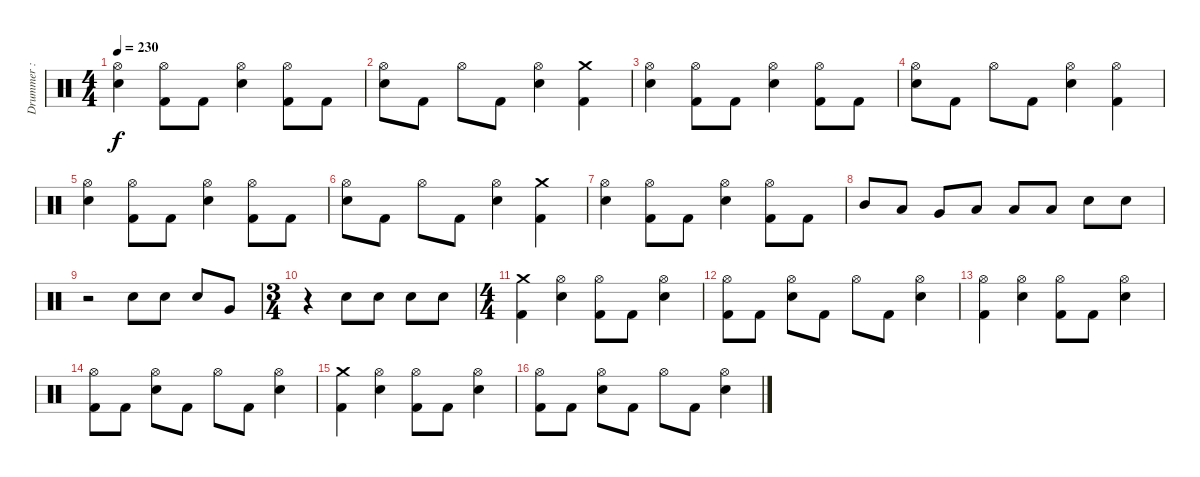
\track ("Drummer : Tainaka Ritsu - Swan" "Drummer : ") {instrument percussion}
\staff {score}
\articulation defaults
\ts (4 4)
\tempo 230
\clef neutral
\ks c
("Hi-Hat (open)" "Electric Snare (hit)").4{dy f} ("Hi-Hat (open)" "Kick (hit) 2").8 "Kick (hit) 2".8 ("Hi-Hat (open)" "Electric Snare (hit)").4 ("Hi-Hat (open)" "Kick (hit) 2").8 "Kick (hit) 2".8 |
("Hi-Hat (open)" "Electric Snare (hit)").8 "Kick (hit) 2".8 "Hi-Hat (open)".8 "Kick (hit) 2".8 ("Hi-Hat (open)" "Electric Snare (hit)").4 ("Crash medium (hit)" "Kick (hit) 2").4 |
("Hi-Hat (open)" "Electric Snare (hit)").4 ("Hi-Hat (open)" "Kick (hit) 2").8 "Kick (hit) 2".8 ("Hi-Hat (open)" "Electric Snare (hit)").4 ("Hi-Hat (open)" "Kick (hit) 2").8 "Kick (hit) 2".8 |
("Hi-Hat (open)" "Electric Snare (hit)").8 "Kick (hit) 2".8 "Hi-Hat (open)".8 "Kick (hit) 2".8 ("Hi-Hat (open)" "Electric Snare (hit)").4 ("Hi-Hat (open)" "Kick (hit) 2").4 |
("Hi-Hat (open)" "Electric Snare (hit)").4 ("Hi-Hat (open)" "Kick (hit) 2").8 "Kick (hit) 2".8 ("Hi-Hat (open)" "Electric Snare (hit)").4 ("Hi-Hat (open)" "Kick (hit) 2").8 "Kick (hit) 2".8 |
("Hi-Hat (open)" "Electric Snare (hit)").8 "Kick (hit) 2".8 "Hi-Hat (open)".8 "Kick (hit) 2".8 ("Hi-Hat (open)" "Electric Snare (hit)").4 ("Crash medium (hit)" "Kick (hit) 2").4 |
("Hi-Hat (open)" "Electric Snare (hit)").4 ("Hi-Hat (open)" "Kick (hit) 2").8 "Kick (hit) 2".8 ("Hi-Hat (open)" "Electric Snare (hit)").4 ("Hi-Hat (open)" "Kick (hit) 2").8 "Kick (hit) 2".8 |
"Mid Tom (hit)".8 "Low Tom (hit)".8 "Very Low Tom (hit)".8 "Low Floor Tom (hit)".8 "Low Floor Tom (hit)".8 "Low Floor Tom (hit)".8 "Electric Snare (hit)".8 "Electric Snare (hit)".8 |
r.2 "Electric Snare (hit)".8 "Electric Snare (hit)".8 "Electric Snare (hit)".8 "Very Low Tom (hit)".8 |
\ts (3 4)
r.4 "Electric Snare (hit)".8 "Electric Snare (hit)".8 "Electric Snare (hit)".8 "Electric Snare (hit)".8 |
\ts (4 4)
("Crash medium (hit)" "Kick (hit) 2").4 ("Hi-Hat (open)" "Electric Snare (hit)").4 ("Hi-Hat (open)" "Kick (hit) 2").8 "Kick (hit) 2".8 ("Hi-Hat (open)" "Electric Snare (hit)").4 |
("Hi-Hat (open)" "Kick (hit) 2").8 "Kick (hit) 2".8 ("Hi-Hat (open)" "Electric Snare (hit)").8 "Kick (hit) 2".8 "Hi-Hat (open)".8 "Kick (hit) 2".8 ("Hi-Hat (open)" "Electric Snare (hit)").4 |
("Hi-Hat (open)" "Kick (hit) 2").4 ("Hi-Hat (open)" "Electric Snare (hit)").4 ("Hi-Hat (open)" "Kick (hit) 2").8 "Kick (hit) 2".8 ("Hi-Hat (open)" "Electric Snare (hit)").4 |
("Hi-Hat (open)" "Kick (hit) 2").8 "Kick (hit) 2".8 ("Hi-Hat (open)" "Electric Snare (hit)").8 "Kick (hit) 2".8 "Hi-Hat (open)".8 "Kick (hit) 2".8 ("Hi-Hat (open)" "Electric Snare (hit)").4 |
("Crash medium (hit)" "Kick (hit) 2").4 ("Hi-Hat (open)" "Electric Snare (hit)").4 ("Hi-Hat (open)" "Kick (hit) 2").8 "Kick (hit) 2".8 ("Hi-Hat (open)" "Electric Snare (hit)").4 |
("Hi-Hat (open)" "Kick (hit) 2").8 "Kick (hit) 2".8 ("Hi-Hat (open)" "Electric Snare (hit)").8 "Kick (hit) 2".8 "Hi-Hat (open)".8 "Kick (hit) 2".8 ("Hi-Hat (open)" "Electric Snare (hit)").4
